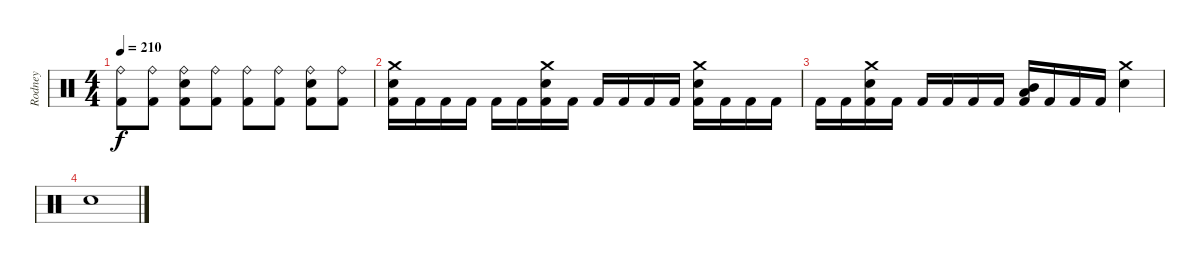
\track ("Rodney" "Rodney") {instrument percussion}
\staff {score}
\articulation defaults
\ts (4 4)
\tempo 210
\clef neutral
\ks c
("Ride (bell)" "Kick (hit) 2").8{dy f} ("Ride (bell)" "Kick (hit) 2").8 ("Ride (bell)" "Snare (hit) 2" "Kick (hit) 2").8 ("Ride (bell)" "Kick (hit) 2").8 ("Ride (bell)" "Kick (hit) 2").8 ("Ride (bell)" "Kick (hit) 2").8 ("Ride (bell)" "Snare (hit) 2" "Kick (hit) 2").8 ("Ride (bell)" "Kick (hit) 2").8 |
("Crash medium (hit)" "Snare (hit) 2" "Kick (hit) 2").16 "Kick (hit) 2".16 "Kick (hit) 2".16 "Kick (hit) 2".16 "Kick (hit) 2".16 "Kick (hit) 2".16 ("Crash medium (hit)" "Snare (hit) 2" "Kick (hit) 2").16 "Kick (hit) 2".16 "Kick (hit) 2".16 "Kick (hit) 2".16 "Kick (hit) 2".16 "Kick (hit) 2".16 ("Crash medium (hit)" "Snare (hit) 2" "Kick (hit) 2").16 "Kick (hit) 2".16 "Kick (hit) 2".16 "Kick (hit) 2".16 |
"Kick (hit) 2".16 "Kick (hit) 2".16 ("Crash medium (hit)" "Snare (hit) 2" "Kick (hit) 2").16 "Kick (hit) 2".16 "Kick (hit) 2".16 "Kick (hit) 2".16 "Kick (hit) 2".16 "Kick (hit) 2".16 ("Mid Tom (hit)" "Low Tom (hit)" "Kick (hit) 2").16 "Kick (hit) 2".16 "Kick (hit) 2".16 "Kick (hit) 2".16 ("Crash medium (hit)" "Snare (hit) 2").4 |
"Snare (hit)".1
